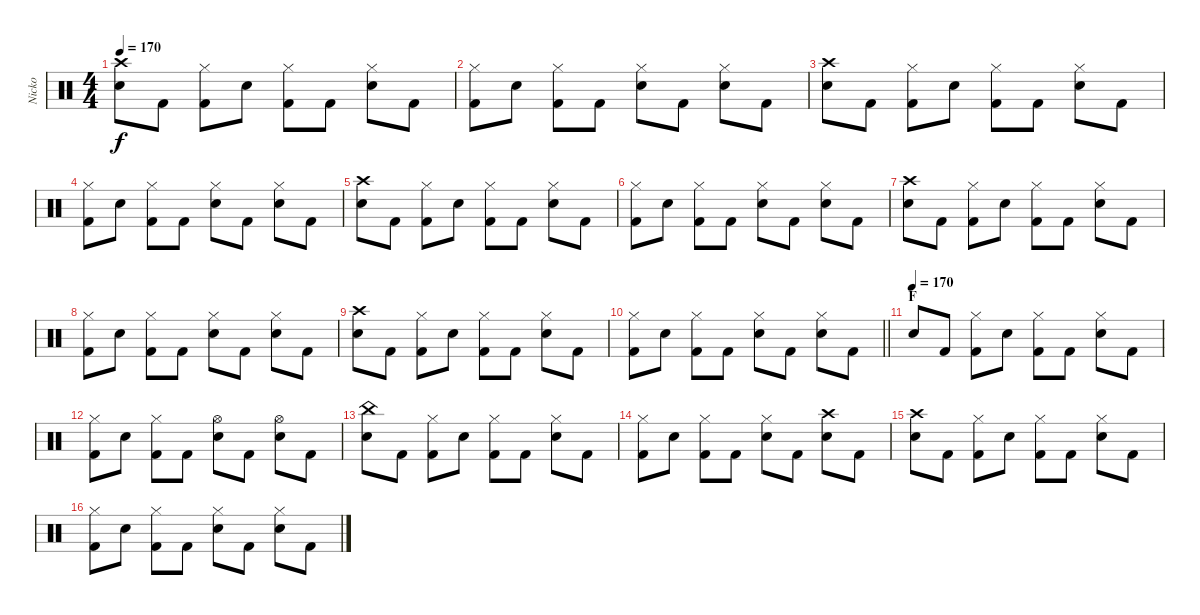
\track ("Nicko" "Nicko") {instrument percussion}
\staff {score}
\articulation defaults
\ts (4 4)
\tempo 170
\clef neutral
\ks c
("Crash high (hit)" "Snare (hit) 2").8{dy f} "Kick (hit) 2".8 ("Hi-Hat (closed)" "Kick (hit) 2").8 "Snare (hit) 2".8 ("Hi-Hat (closed)" "Kick (hit) 2").8 "Kick (hit) 2".8 ("Hi-Hat (closed)" "Snare (hit) 2").8 "Kick (hit) 2".8 |
("Hi-Hat (closed)" "Kick (hit) 2").8 "Snare (hit) 2".8 ("Hi-Hat (closed)" "Kick (hit) 2").8 "Kick (hit) 2".8 ("Hi-Hat (closed)" "Snare (hit) 2").8 "Kick (hit) 2".8 ("Hi-Hat (closed)" "Snare (hit) 2").8 "Kick (hit) 2".8 |
("Crash high (hit)" "Snare (hit) 2").8 "Kick (hit) 2".8 ("Hi-Hat (closed)" "Kick (hit) 2").8 "Snare (hit) 2".8 ("Hi-Hat (closed)" "Kick (hit) 2").8 "Kick (hit) 2".8 ("Hi-Hat (closed)" "Snare (hit) 2").8 "Kick (hit) 2".8 |
("Hi-Hat (closed)" "Kick (hit) 2").8 "Snare (hit) 2".8 ("Hi-Hat (closed)" "Kick (hit) 2").8 "Kick (hit) 2".8 ("Hi-Hat (closed)" "Snare (hit) 2").8 "Kick (hit) 2".8 ("Hi-Hat (closed)" "Snare (hit) 2").8 "Kick (hit) 2".8 |
("Crash high (hit)" "Snare (hit) 2").8 "Kick (hit) 2".8 ("Hi-Hat (closed)" "Kick (hit) 2").8 "Snare (hit) 2".8 ("Hi-Hat (closed)" "Kick (hit) 2").8 "Kick (hit) 2".8 ("Hi-Hat (closed)" "Snare (hit) 2").8 "Kick (hit) 2".8 |
("Hi-Hat (closed)" "Kick (hit) 2").8 "Snare (hit) 2".8 ("Hi-Hat (closed)" "Kick (hit) 2").8 "Kick (hit) 2".8 ("Hi-Hat (closed)" "Snare (hit) 2").8 "Kick (hit) 2".8 ("Hi-Hat (closed)" "Snare (hit) 2").8 "Kick (hit) 2".8 |
("Crash high (hit)" "Snare (hit) 2").8 "Kick (hit) 2".8 ("Hi-Hat (closed)" "Kick (hit) 2").8 "Snare (hit) 2".8 ("Hi-Hat (closed)" "Kick (hit) 2").8 "Kick (hit) 2".8 ("Hi-Hat (closed)" "Snare (hit) 2").8 "Kick (hit) 2".8 |
("Hi-Hat (closed)" "Kick (hit) 2").8 "Snare (hit) 2".8 ("Hi-Hat (closed)" "Kick (hit) 2").8 "Kick (hit) 2".8 ("Hi-Hat (closed)" "Snare (hit) 2").8 "Kick (hit) 2".8 ("Hi-Hat (closed)" "Snare (hit) 2").8 "Kick (hit) 2".8 |
("Crash high (hit)" "Snare (hit) 2").8 "Kick (hit) 2".8 ("Hi-Hat (closed)" "Kick (hit) 2").8 "Snare (hit) 2".8 ("Hi-Hat (closed)" "Kick (hit) 2").8 "Kick (hit) 2".8 ("Hi-Hat (closed)" "Snare (hit) 2").8 "Kick (hit) 2".8 |
\barLineRight lightlight
("Hi-Hat (closed)" "Kick (hit) 2").8 "Snare (hit) 2".8 ("Hi-Hat (closed)" "Kick (hit) 2").8 "Kick (hit) 2".8 ("Hi-Hat (closed)" "Snare (hit) 2").8 "Kick (hit) 2".8 ("Hi-Hat (closed)" "Snare (hit) 2").8 "Kick (hit) 2".8 |
\section ("" "F")
\tempo 180
\tempo (170)
"Snare (hit) 2".8 "Kick (hit) 2".8 ("Hi-Hat (closed)" "Kick (hit) 2").8 "Snare (hit) 2".8 ("Hi-Hat (closed)" "Kick (hit) 2").8 "Kick (hit) 2".8 ("Hi-Hat (closed)" "Snare (hit) 2").8 "Kick (hit) 2".8 |
("Hi-Hat (closed)" "Kick (hit) 2").8 "Snare (hit) 2".8 ("Hi-Hat (closed)" "Kick (hit) 2").8 "Kick (hit) 2".8 ("Hi-Hat (open)" "Snare (hit) 2").8 "Kick (hit) 2".8 ("Hi-Hat (open)" "Snare (hit) 2").8 "Kick (hit) 2".8 |
("China (hit)" "Snare (hit) 2").8 "Kick (hit) 2".8 ("Hi-Hat (closed)" "Kick (hit) 2").8 "Snare (hit) 2".8 ("Hi-Hat (closed)" "Kick (hit) 2").8 "Kick (hit) 2".8 ("Hi-Hat (closed)" "Snare (hit) 2").8 "Kick (hit) 2".8 |
("Hi-Hat (closed)" "Kick (hit) 2").8 "Snare (hit) 2".8 ("Hi-Hat (closed)" "Kick (hit) 2").8 "Kick (hit) 2".8 ("Hi-Hat (closed)" "Snare (hit) 2").8 "Kick (hit) 2".8 ("Crash high (hit)" "Snare (hit) 2").8 "Kick (hit) 2".8 |
("Crash high (hit)" "Snare (hit) 2").8 "Kick (hit) 2".8 ("Hi-Hat (closed)" "Kick (hit) 2").8 "Snare (hit) 2".8 ("Hi-Hat (closed)" "Kick (hit) 2").8 "Kick (hit) 2".8 ("Hi-Hat (closed)" "Snare (hit) 2").8 "Kick (hit) 2".8 |
("Hi-Hat (closed)" "Kick (hit) 2").8 "Snare (hit) 2".8 ("Hi-Hat (closed)" "Kick (hit) 2").8 "Kick (hit) 2".8 ("Hi-Hat (closed)" "Snare (hit) 2").8 "Kick (hit) 2".8 ("Hi-Hat (closed)" "Snare (hit) 2").8 "Kick (hit) 2".8
